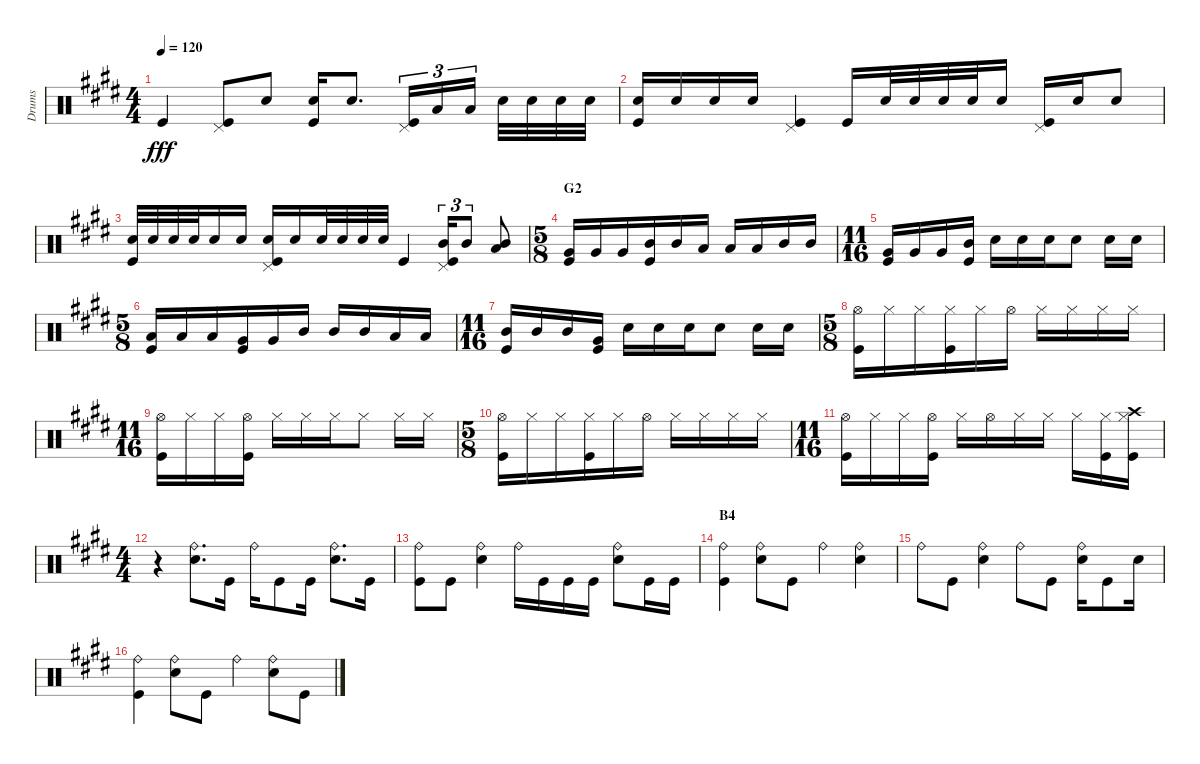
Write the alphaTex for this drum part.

\track ("Drums" "Drums") {instrument percussion}
\staff {score}
\articulation defaults
\ts (4 4)
\tempo 120
\clef neutral
\ks e "Kick (hit)".4{dy fff}
("Pedal Hi-Hat (hit)" "Kick (hit)").8 "Snare (hit) 2".8 ("Snare (hit) 2" "Kick (hit)").16 "Snare (hit) 2".8{d} ("Pedal Hi-Hat (hit)" "Kick (hit)").16{tu (3 2)} "Low Tom (hit)".16{tu (3 2)} "Low Tom (hit)".16{tu (3 2)} "Snare (hit) 2".32 "Snare (hit) 2".32 "Snare (hit) 2".32 "Snare (hit) 2".32 |
("Snare (hit) 2" "Kick (hit)").16 "Snare (hit) 2".16 "Snare (hit) 2".16 "Snare (hit) 2".16 ("Pedal Hi-Hat (hit)" "Kick (hit)").4 "Kick (hit)".16 "Snare (hit) 2".32 "Snare (hit) 2".32 "Snare (hit) 2".32 "Snare (hit) 2".32 "Snare (hit) 2".16 ("Pedal Hi-Hat (hit)" "Kick (hit)").16 "Snare (hit) 2".16 "Snare (hit) 2".8 |
("Snare (hit) 2" "Kick (hit)").32 "Snare (hit) 2".32 "Snare (hit) 2".32 "Snare (hit) 2".32 "Snare (hit) 2".16 "Snare (hit) 2".16 ("Pedal Hi-Hat (hit)" "Snare (hit) 2" "Kick (hit)").16 "Snare (hit) 2".16 "Snare (hit) 2".32 "Snare (hit) 2".32 "Snare (hit) 2".32 "Snare (hit) 2".32 "Kick (hit)".4 ("Pedal Hi-Hat (hit)" "Mid Tom (hit)" "Kick (hit)").16{tu (3 2)} "Mid Tom (hit)".8{tu (3 2)} ("Mid Tom (hit)" "Low Tom (hit)").8 |
\ts (5 8)
\section ("" "G2")
("Very Low Tom (hit)" "Kick (hit)").16 "Very Low Tom (hit)".16 "Very Low Tom (hit)".16 ("Mid Tom (hit)" "Kick (hit)").16 "Mid Tom (hit)".16 "Low Tom (hit)".16 "Low Tom (hit)".16 "Low Tom (hit)".16 "Mid Tom (hit)".16 "Mid Tom (hit)".16 |
\ts (11 16)
("Very Low Tom (hit)" "Kick (hit)").16 "Very Low Tom (hit)".16 "Very Low Tom (hit)".16 ("Mid Tom (hit)" "Kick (hit)").16 "Snare (hit) 2".16 "Snare (hit) 2".16 "Snare (hit) 2".16 "Snare (hit) 2".8 "Snare (hit) 2".16 "Snare (hit) 2".16 |
\ts (5 8)
("Low Tom (hit)" "Kick (hit)").16 "Low Tom (hit)".16 "Low Tom (hit)".16 ("Very Low Tom (hit)" "Kick (hit)").16 "Very Low Tom (hit)".16 "Mid Tom (hit)".16 "Mid Tom (hit)".16 "Mid Tom (hit)".16 "Low Tom (hit)".16 "Low Tom (hit)".16 |
\ts (11 16)
("Mid Tom (hit)" "Kick (hit)").16 "Mid Tom (hit)".16 "Mid Tom (hit)".16 ("Very Low Tom (hit)" "Kick (hit)").16 "Snare (hit) 2".16 "Snare (hit) 2".16 "Snare (hit) 2".16 "Snare (hit) 2".8 "Snare (hit) 2".16 "Snare (hit) 2".16 |
\ts (5 8)
("Hi-Hat (open)" "Kick (hit)").16 "Hi-Hat (closed)".16 "Hi-Hat (closed)".16 ("Hi-Hat (closed)" "Kick (hit)").16 "Hi-Hat (closed)".16 "Hi-Hat (open)".16 "Hi-Hat (closed)".16 "Hi-Hat (closed)".16 "Hi-Hat (closed)".16 "Hi-Hat (closed)".16 |
\ts (11 16)
("Hi-Hat (open)" "Kick (hit)").16 "Hi-Hat (closed)".16 "Hi-Hat (closed)".16 ("Hi-Hat (open)" "Kick (hit)").16 "Hi-Hat (closed)".16 "Hi-Hat (closed)".16 "Hi-Hat (closed)".16 "Hi-Hat (closed)".8 "Hi-Hat (closed)".16 "Hi-Hat (closed)".16 |
\ts (5 8)
("Hi-Hat (open)" "Kick (hit)").16 "Hi-Hat (closed)".16 "Hi-Hat (closed)".16 ("Hi-Hat (closed)" "Kick (hit)").16 "Hi-Hat (closed)".16 "Hi-Hat (open)".16 "Hi-Hat (closed)".16 "Hi-Hat (closed)".16 "Hi-Hat (closed)".16 "Hi-Hat (closed)".16 |
\ts (11 16)
("Hi-Hat (open)" "Kick (hit)").16 "Hi-Hat (closed)".16 "Hi-Hat (closed)".16 ("Hi-Hat (open)" "Kick (hit)").16 "Hi-Hat (closed)".16 "Hi-Hat (open)".16 "Hi-Hat (closed)".16 "Hi-Hat (closed)".16 "Hi-Hat (closed)".16 ("Hi-Hat (closed)" "Kick (hit)").16 ("Hi-Hat (closed)" "Crash high (hit)" "Kick (hit)").16 |
\ts (4 4)
r.4 ("Ride (bell)" "Snare (hit) 2").8{d} "Kick (hit)".16 "Ride (bell)".16 "Kick (hit)".8 "Kick (hit)".16 ("Ride (bell)" "Snare (hit) 2").8{d} "Kick (hit)".16 |
("Ride (bell)" "Kick (hit)").8 "Kick (hit)".8 ("Ride (bell)" "Snare (hit) 2").4 "Ride (bell)".16 "Kick (hit)".16 "Kick (hit)".16 "Kick (hit)".16 ("Ride (bell)" "Snare (hit) 2").8 "Kick (hit)".16 "Kick (hit)".16 |
\section ("" "B4")
("Ride (bell)" "Kick (hit)").4 ("Ride (bell)" "Snare (hit) 2").8 "Kick (hit)".8 "Ride (bell)".4 ("Ride (bell)" "Snare (hit) 2").4 |
"Ride (bell)".8 "Kick (hit)".8 ("Ride (bell)" "Snare (hit) 2").4 "Ride (bell)".8 "Kick (hit)".8 ("Ride (bell)" "Snare (hit) 2").16 "Kick (hit)".8 "Snare (hit) 2".16 |
("Ride (bell)" "Kick (hit)").4 ("Ride (bell)" "Snare (hit) 2").8 "Kick (hit)".8 "Ride (bell)".4 ("Ride (bell)" "Snare (hit) 2").8 "Kick (hit)".8
